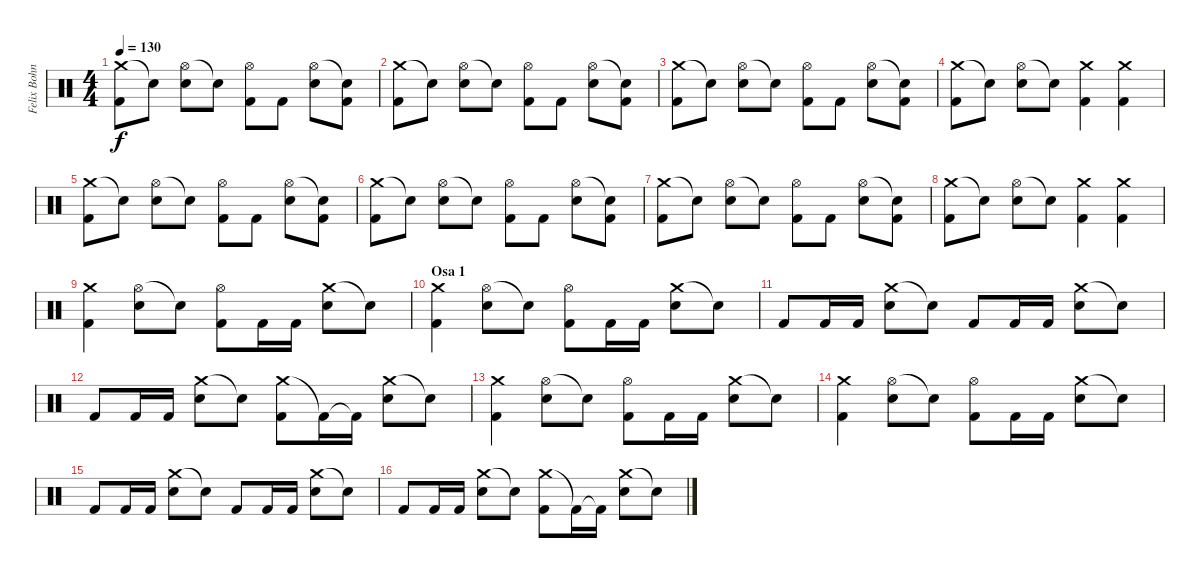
\track ("Felix Bohnke" "Felix Bohn") {instrument percussion}
\staff {score}
\articulation defaults
\ts (4 4)
\tempo 130
\clef neutral
\ks c
("Crash medium (hit)" "Kick (hit) 2").8{dy f} "Snare (hit)"{t}.8 ("Hi-Hat (open)" "Electric Snare (hit)").8 "Snare (hit)"{t}.8 ("Hi-Hat (open)" "Kick (hit) 2").8 "Kick (hit) 2".8 ("Hi-Hat (open)" "Electric Snare (hit)").8 ("Snare (hit)"{t} "Kick (hit) 2").8 |
("Crash medium (hit)" "Kick (hit) 2").8 "Snare (hit)"{t}.8 ("Hi-Hat (open)" "Electric Snare (hit)").8 "Snare (hit)"{t}.8 ("Hi-Hat (open)" "Kick (hit) 2").8 "Kick (hit) 2".8 ("Hi-Hat (open)" "Electric Snare (hit)").8 ("Snare (hit)"{t} "Kick (hit) 2").8 |
("Crash medium (hit)" "Kick (hit) 2").8 "Snare (hit)"{t}.8 ("Hi-Hat (open)" "Electric Snare (hit)").8 "Snare (hit)"{t}.8 ("Hi-Hat (open)" "Kick (hit) 2").8 "Kick (hit) 2".8 ("Hi-Hat (open)" "Electric Snare (hit)").8 ("Snare (hit)"{t} "Kick (hit) 2").8 |
("Crash medium (hit)" "Kick (hit) 2").8 "Snare (hit)"{t}.8 ("Hi-Hat (open)" "Electric Snare (hit)").8 "Snare (hit)"{t}.8 ("Crash medium (hit)" "Kick (hit) 2").4 ("Crash medium (hit)" "Kick (hit) 2").4 |
("Crash medium (hit)" "Kick (hit) 2").8 "Snare (hit)"{t}.8 ("Hi-Hat (open)" "Electric Snare (hit)").8 "Snare (hit)"{t}.8 ("Hi-Hat (open)" "Kick (hit) 2").8 "Kick (hit) 2".8 ("Hi-Hat (open)" "Electric Snare (hit)").8 ("Snare (hit)"{t} "Kick (hit) 2").8 |
("Crash medium (hit)" "Kick (hit) 2").8 "Snare (hit)"{t}.8 ("Hi-Hat (open)" "Electric Snare (hit)").8 "Snare (hit)"{t}.8 ("Hi-Hat (open)" "Kick (hit) 2").8 "Kick (hit) 2".8 ("Hi-Hat (open)" "Electric Snare (hit)").8 ("Snare (hit)"{t} "Kick (hit) 2").8 |
("Crash medium (hit)" "Kick (hit) 2").8 "Snare (hit)"{t}.8 ("Hi-Hat (open)" "Electric Snare (hit)").8 "Snare (hit)"{t}.8 ("Hi-Hat (open)" "Kick (hit) 2").8 "Kick (hit) 2".8 ("Hi-Hat (open)" "Electric Snare (hit)").8 ("Snare (hit)"{t} "Kick (hit) 2").8 |
("Crash medium (hit)" "Kick (hit) 2").8 "Snare (hit)"{t}.8 ("Hi-Hat (open)" "Electric Snare (hit)").8 "Snare (hit)"{t}.8 ("Crash medium (hit)" "Kick (hit) 2").4 ("Crash medium (hit)" "Kick (hit) 2").4 |
("Crash medium (hit)" "Kick (hit) 2").4 ("Hi-Hat (open)" "Electric Snare (hit)").8 "Snare (hit)"{t}.8 ("Hi-Hat (open)" "Kick (hit) 2").8 "Kick (hit) 2".16 "Kick (hit) 2".16 ("Crash medium (hit)" "Electric Snare (hit)").8 "Snare (hit)"{t}.8 |
\section ("" "Osa 1")
("Crash medium (hit)" "Kick (hit) 2").4 ("Hi-Hat (open)" "Electric Snare (hit)").8 "Snare (hit)"{t}.8 ("Hi-Hat (open)" "Kick (hit) 2").8 "Kick (hit) 2".16 "Kick (hit) 2".16 ("Crash medium (hit)" "Electric Snare (hit)").8 "Snare (hit)"{t}.8 |
"Kick (hit) 2".8 "Kick (hit) 2".16 "Kick (hit) 2".16 ("Crash medium (hit)" "Electric Snare (hit)").8 "Snare (hit)"{t}.8 "Kick (hit) 2".8 "Kick (hit) 2".16 "Kick (hit) 2".16 ("Crash medium (hit)" "Electric Snare (hit)").8 "Snare (hit)"{t}.8 |
"Kick (hit) 2".8 "Kick (hit) 2".16 "Kick (hit) 2".16 ("Crash medium (hit)" "Electric Snare (hit)").8 "Snare (hit)"{t}.8 ("Crash medium (hit)" "Kick (hit) 2").8 "Kick (hit) 2"{t}.16 "Kick (hit) 2"{t}.16 ("Crash medium (hit)" "Electric Snare (hit)").8 "Snare (hit)"{t}.8 |
("Crash medium (hit)" "Kick (hit) 2").4 ("Hi-Hat (open)" "Electric Snare (hit)").8 "Snare (hit)"{t}.8 ("Hi-Hat (open)" "Kick (hit) 2").8 "Kick (hit) 2".16 "Kick (hit) 2".16 ("Crash medium (hit)" "Electric Snare (hit)").8 "Snare (hit)"{t}.8 |
("Crash medium (hit)" "Kick (hit) 2").4 ("Hi-Hat (open)" "Electric Snare (hit)").8 "Snare (hit)"{t}.8 ("Hi-Hat (open)" "Kick (hit) 2").8 "Kick (hit) 2".16 "Kick (hit) 2".16 ("Crash medium (hit)" "Electric Snare (hit)").8 "Snare (hit)"{t}.8 |
"Kick (hit) 2".8 "Kick (hit) 2".16 "Kick (hit) 2".16 ("Crash medium (hit)" "Electric Snare (hit)").8 "Snare (hit)"{t}.8 "Kick (hit) 2".8 "Kick (hit) 2".16 "Kick (hit) 2".16 ("Crash medium (hit)" "Electric Snare (hit)").8 "Snare (hit)"{t}.8 |
"Kick (hit) 2".8 "Kick (hit) 2".16 "Kick (hit) 2".16 ("Crash medium (hit)" "Electric Snare (hit)").8 "Snare (hit)"{t}.8 ("Crash medium (hit)" "Kick (hit) 2").8 "Kick (hit) 2"{t}.16 "Kick (hit) 2"{t}.16 ("Crash medium (hit)" "Electric Snare (hit)").8 "Snare (hit)"{t}.8
